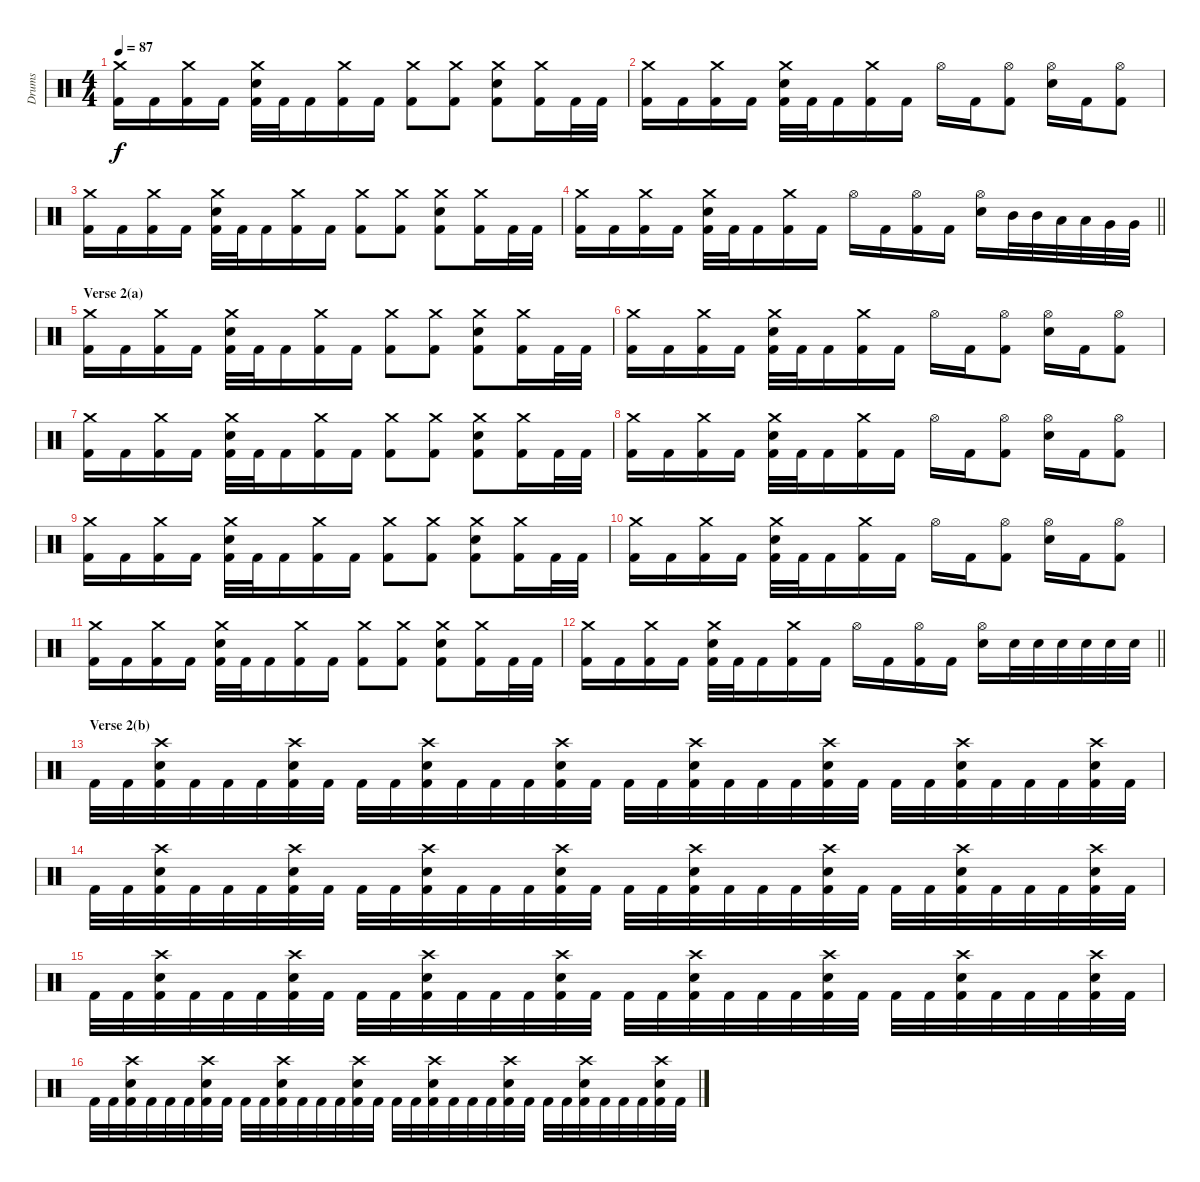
\track ("Drums" "Drums") {instrument percussion}
\staff {score}
\articulation defaults
\ts (4 4)
\tempo 87
\clef neutral
\ks c
("Crash medium (hit)" "Kick (hit) 2").16{dy f} "Kick (hit) 2".16 ("Crash medium (hit)" "Kick (hit) 2").16 "Kick (hit) 2".16 ("Crash medium (hit)" "Electric Snare (hit)" "Kick (hit) 2").32 "Kick (hit) 2".32 "Kick (hit) 2".16 ("Crash medium (hit)" "Kick (hit) 2").16 "Kick (hit) 2".16 ("Crash medium (hit)" "Kick (hit) 2").8 ("Crash medium (hit)" "Kick (hit) 2").8 ("Crash medium (hit)" "Electric Snare (hit)" "Kick (hit) 2").8 ("Crash medium (hit)" "Kick (hit) 2").16 "Kick (hit) 2".32 "Kick (hit) 2".32 |
("Crash medium (hit)" "Kick (hit) 2").16 "Kick (hit) 2".16 ("Crash medium (hit)" "Kick (hit) 2").16 "Kick (hit) 2".16 ("Crash medium (hit)" "Electric Snare (hit)" "Kick (hit) 2").32 "Kick (hit) 2".32 "Kick (hit) 2".16 ("Crash medium (hit)" "Kick (hit) 2").16 "Kick (hit) 2".16 "Hi-Hat (open)".16 "Kick (hit) 2".16 ("Hi-Hat (open)" "Kick (hit) 2").8 ("Hi-Hat (open)" "Electric Snare (hit)").16 "Kick (hit) 2".16 ("Hi-Hat (open)" "Kick (hit) 2").8 |
("Crash medium (hit)" "Kick (hit) 2").16 "Kick (hit) 2".16 ("Crash medium (hit)" "Kick (hit) 2").16 "Kick (hit) 2".16 ("Crash medium (hit)" "Electric Snare (hit)" "Kick (hit) 2").32 "Kick (hit) 2".32 "Kick (hit) 2".16 ("Crash medium (hit)" "Kick (hit) 2").16 "Kick (hit) 2".16 ("Crash medium (hit)" "Kick (hit) 2").8 ("Crash medium (hit)" "Kick (hit) 2").8 ("Crash medium (hit)" "Electric Snare (hit)" "Kick (hit) 2").8 ("Crash medium (hit)" "Kick (hit) 2").16 "Kick (hit) 2".32 "Kick (hit) 2".32 |
\barLineRight lightlight
("Crash medium (hit)" "Kick (hit) 2").16 "Kick (hit) 2".16 ("Crash medium (hit)" "Kick (hit) 2").16 "Kick (hit) 2".16 ("Crash medium (hit)" "Electric Snare (hit)" "Kick (hit) 2").32 "Kick (hit) 2".32 "Kick (hit) 2".16 ("Crash medium (hit)" "Kick (hit) 2").16 "Kick (hit) 2".16 "Hi-Hat (open)".16 "Kick (hit) 2".16 ("Hi-Hat (open)" "Kick (hit) 2").16 "Kick (hit) 2".16 ("Hi-Hat (open)" "Electric Snare (hit)").16 "Mid Tom (hit)".32 "Mid Tom (hit)".32 "Low Tom (hit)".32 "Low Tom (hit)".32 "Very Low Tom (hit)".32 "Very Low Tom (hit)".32 |
\section ("" "Verse 2(a)")
("Crash medium (hit)" "Kick (hit) 2").16 "Kick (hit) 2".16 ("Crash medium (hit)" "Kick (hit) 2").16 "Kick (hit) 2".16 ("Crash medium (hit)" "Electric Snare (hit)" "Kick (hit) 2").32 "Kick (hit) 2".32 "Kick (hit) 2".16 ("Crash medium (hit)" "Kick (hit) 2").16 "Kick (hit) 2".16 ("Crash medium (hit)" "Kick (hit) 2").8 ("Crash medium (hit)" "Kick (hit) 2").8 ("Crash medium (hit)" "Electric Snare (hit)" "Kick (hit) 2").8 ("Crash medium (hit)" "Kick (hit) 2").16 "Kick (hit) 2".32 "Kick (hit) 2".32 |
("Crash medium (hit)" "Kick (hit) 2").16 "Kick (hit) 2".16 ("Crash medium (hit)" "Kick (hit) 2").16 "Kick (hit) 2".16 ("Crash medium (hit)" "Electric Snare (hit)" "Kick (hit) 2").32 "Kick (hit) 2".32 "Kick (hit) 2".16 ("Crash medium (hit)" "Kick (hit) 2").16 "Kick (hit) 2".16 "Hi-Hat (open)".16 "Kick (hit) 2".16 ("Hi-Hat (open)" "Kick (hit) 2").8 ("Hi-Hat (open)" "Electric Snare (hit)").16 "Kick (hit) 2".16 ("Hi-Hat (open)" "Kick (hit) 2").8 |
("Crash medium (hit)" "Kick (hit) 2").16 "Kick (hit) 2".16 ("Crash medium (hit)" "Kick (hit) 2").16 "Kick (hit) 2".16 ("Crash medium (hit)" "Electric Snare (hit)" "Kick (hit) 2").32 "Kick (hit) 2".32 "Kick (hit) 2".16 ("Crash medium (hit)" "Kick (hit) 2").16 "Kick (hit) 2".16 ("Crash medium (hit)" "Kick (hit) 2").8 ("Crash medium (hit)" "Kick (hit) 2").8 ("Crash medium (hit)" "Electric Snare (hit)" "Kick (hit) 2").8 ("Crash medium (hit)" "Kick (hit) 2").16 "Kick (hit) 2".32 "Kick (hit) 2".32 |
("Crash medium (hit)" "Kick (hit) 2").16 "Kick (hit) 2".16 ("Crash medium (hit)" "Kick (hit) 2").16 "Kick (hit) 2".16 ("Crash medium (hit)" "Electric Snare (hit)" "Kick (hit) 2").32 "Kick (hit) 2".32 "Kick (hit) 2".16 ("Crash medium (hit)" "Kick (hit) 2").16 "Kick (hit) 2".16 "Hi-Hat (open)".16 "Kick (hit) 2".16 ("Hi-Hat (open)" "Kick (hit) 2").8 ("Hi-Hat (open)" "Electric Snare (hit)").16 "Kick (hit) 2".16 ("Hi-Hat (open)" "Kick (hit) 2").8 |
("Crash medium (hit)" "Kick (hit) 2").16 "Kick (hit) 2".16 ("Crash medium (hit)" "Kick (hit) 2").16 "Kick (hit) 2".16 ("Crash medium (hit)" "Electric Snare (hit)" "Kick (hit) 2").32 "Kick (hit) 2".32 "Kick (hit) 2".16 ("Crash medium (hit)" "Kick (hit) 2").16 "Kick (hit) 2".16 ("Crash medium (hit)" "Kick (hit) 2").8 ("Crash medium (hit)" "Kick (hit) 2").8 ("Crash medium (hit)" "Electric Snare (hit)" "Kick (hit) 2").8 ("Crash medium (hit)" "Kick (hit) 2").16 "Kick (hit) 2".32 "Kick (hit) 2".32 |
("Crash medium (hit)" "Kick (hit) 2").16 "Kick (hit) 2".16 ("Crash medium (hit)" "Kick (hit) 2").16 "Kick (hit) 2".16 ("Crash medium (hit)" "Electric Snare (hit)" "Kick (hit) 2").32 "Kick (hit) 2".32 "Kick (hit) 2".16 ("Crash medium (hit)" "Kick (hit) 2").16 "Kick (hit) 2".16 "Hi-Hat (open)".16 "Kick (hit) 2".16 ("Hi-Hat (open)" "Kick (hit) 2").8 ("Hi-Hat (open)" "Electric Snare (hit)").16 "Kick (hit) 2".16 ("Hi-Hat (open)" "Kick (hit) 2").8 |
("Crash medium (hit)" "Kick (hit) 2").16 "Kick (hit) 2".16 ("Crash medium (hit)" "Kick (hit) 2").16 "Kick (hit) 2".16 ("Crash medium (hit)" "Electric Snare (hit)" "Kick (hit) 2").32 "Kick (hit) 2".32 "Kick (hit) 2".16 ("Crash medium (hit)" "Kick (hit) 2").16 "Kick (hit) 2".16 ("Crash medium (hit)" "Kick (hit) 2").8 ("Crash medium (hit)" "Kick (hit) 2").8 ("Crash medium (hit)" "Electric Snare (hit)" "Kick (hit) 2").8 ("Crash medium (hit)" "Kick (hit) 2").16 "Kick (hit) 2".32 "Kick (hit) 2".32 |
\barLineRight lightlight
("Crash medium (hit)" "Kick (hit) 2").16 "Kick (hit) 2".16 ("Crash medium (hit)" "Kick (hit) 2").16 "Kick (hit) 2".16 ("Crash medium (hit)" "Electric Snare (hit)" "Kick (hit) 2").32 "Kick (hit) 2".32 "Kick (hit) 2".16 ("Crash medium (hit)" "Kick (hit) 2").16 "Kick (hit) 2".16 "Hi-Hat (open)".16 "Kick (hit) 2".16 ("Hi-Hat (open)" "Kick (hit) 2").16 "Kick (hit) 2".16 ("Hi-Hat (open)" "Electric Snare (hit)").16 "Electric Snare (hit)".32 "Electric Snare (hit)".32 "Electric Snare (hit)".32 "Electric Snare (hit)".32 "Electric Snare (hit)".32 "Electric Snare (hit)".32 |
\section ("" "Verse 2(b)")
"Kick (hit) 2".32 "Kick (hit) 2".32 ("Crash high (hit)" "Electric Snare (hit)" "Kick (hit) 2").32 "Kick (hit) 2".32 "Kick (hit) 2".32 "Kick (hit) 2".32 ("Crash high (hit)" "Electric Snare (hit)" "Kick (hit) 2").32 "Kick (hit) 2".32 "Kick (hit) 2".32 "Kick (hit) 2".32 ("Crash high (hit)" "Electric Snare (hit)" "Kick (hit) 2").32 "Kick (hit) 2".32 "Kick (hit) 2".32 "Kick (hit) 2".32 ("Crash high (hit)" "Electric Snare (hit)" "Kick (hit) 2").32 "Kick (hit) 2".32 "Kick (hit) 2".32 "Kick (hit) 2".32 ("Crash high (hit)" "Electric Snare (hit)" "Kick (hit) 2").32 "Kick (hit) 2".32 "Kick (hit) 2".32 "Kick (hit) 2".32 ("Crash high (hit)" "Electric Snare (hit)" "Kick (hit) 2").32 "Kick (hit) 2".32 "Kick (hit) 2".32 "Kick (hit) 2".32 ("Crash high (hit)" "Electric Snare (hit)" "Kick (hit) 2").32 "Kick (hit) 2".32 "Kick (hit) 2".32 "Kick (hit) 2".32 ("Crash high (hit)" "Electric Snare (hit)" "Kick (hit) 2").32 "Kick (hit) 2".32 |
"Kick (hit) 2".32 "Kick (hit) 2".32 ("Crash high (hit)" "Electric Snare (hit)" "Kick (hit) 2").32 "Kick (hit) 2".32 "Kick (hit) 2".32 "Kick (hit) 2".32 ("Crash high (hit)" "Electric Snare (hit)" "Kick (hit) 2").32 "Kick (hit) 2".32 "Kick (hit) 2".32 "Kick (hit) 2".32 ("Crash high (hit)" "Electric Snare (hit)" "Kick (hit) 2").32 "Kick (hit) 2".32 "Kick (hit) 2".32 "Kick (hit) 2".32 ("Crash high (hit)" "Electric Snare (hit)" "Kick (hit) 2").32 "Kick (hit) 2".32 "Kick (hit) 2".32 "Kick (hit) 2".32 ("Crash high (hit)" "Electric Snare (hit)" "Kick (hit) 2").32 "Kick (hit) 2".32 "Kick (hit) 2".32 "Kick (hit) 2".32 ("Crash high (hit)" "Electric Snare (hit)" "Kick (hit) 2").32 "Kick (hit) 2".32 "Kick (hit) 2".32 "Kick (hit) 2".32 ("Crash high (hit)" "Electric Snare (hit)" "Kick (hit) 2").32 "Kick (hit) 2".32 "Kick (hit) 2".32 "Kick (hit) 2".32 ("Crash high (hit)" "Electric Snare (hit)" "Kick (hit) 2").32 "Kick (hit) 2".32 |
"Kick (hit) 2".32 "Kick (hit) 2".32 ("Crash high (hit)" "Electric Snare (hit)" "Kick (hit) 2").32 "Kick (hit) 2".32 "Kick (hit) 2".32 "Kick (hit) 2".32 ("Crash high (hit)" "Electric Snare (hit)" "Kick (hit) 2").32 "Kick (hit) 2".32 "Kick (hit) 2".32 "Kick (hit) 2".32 ("Crash high (hit)" "Electric Snare (hit)" "Kick (hit) 2").32 "Kick (hit) 2".32 "Kick (hit) 2".32 "Kick (hit) 2".32 ("Crash high (hit)" "Electric Snare (hit)" "Kick (hit) 2").32 "Kick (hit) 2".32 "Kick (hit) 2".32 "Kick (hit) 2".32 ("Crash high (hit)" "Electric Snare (hit)" "Kick (hit) 2").32 "Kick (hit) 2".32 "Kick (hit) 2".32 "Kick (hit) 2".32 ("Crash high (hit)" "Electric Snare (hit)" "Kick (hit) 2").32 "Kick (hit) 2".32 "Kick (hit) 2".32 "Kick (hit) 2".32 ("Crash high (hit)" "Electric Snare (hit)" "Kick (hit) 2").32 "Kick (hit) 2".32 "Kick (hit) 2".32 "Kick (hit) 2".32 ("Crash high (hit)" "Electric Snare (hit)" "Kick (hit) 2").32 "Kick (hit) 2".32 |
"Kick (hit) 2".32 "Kick (hit) 2".32 ("Crash high (hit)" "Electric Snare (hit)" "Kick (hit) 2").32 "Kick (hit) 2".32 "Kick (hit) 2".32 "Kick (hit) 2".32 ("Crash high (hit)" "Electric Snare (hit)" "Kick (hit) 2").32 "Kick (hit) 2".32 "Kick (hit) 2".32 "Kick (hit) 2".32 ("Crash high (hit)" "Electric Snare (hit)" "Kick (hit) 2").32 "Kick (hit) 2".32 "Kick (hit) 2".32 "Kick (hit) 2".32 ("Crash high (hit)" "Electric Snare (hit)" "Kick (hit) 2").32 "Kick (hit) 2".32 "Kick (hit) 2".32 "Kick (hit) 2".32 ("Crash high (hit)" "Electric Snare (hit)" "Kick (hit) 2").32 "Kick (hit) 2".32 "Kick (hit) 2".32 "Kick (hit) 2".32 ("Crash high (hit)" "Electric Snare (hit)" "Kick (hit) 2").32 "Kick (hit) 2".32 "Kick (hit) 2".32 "Kick (hit) 2".32 ("Crash high (hit)" "Electric Snare (hit)" "Kick (hit) 2").32 "Kick (hit) 2".32 "Kick (hit) 2".32 "Kick (hit) 2".32 ("Crash high (hit)" "Electric Snare (hit)" "Kick (hit) 2").32 "Kick (hit) 2".32
